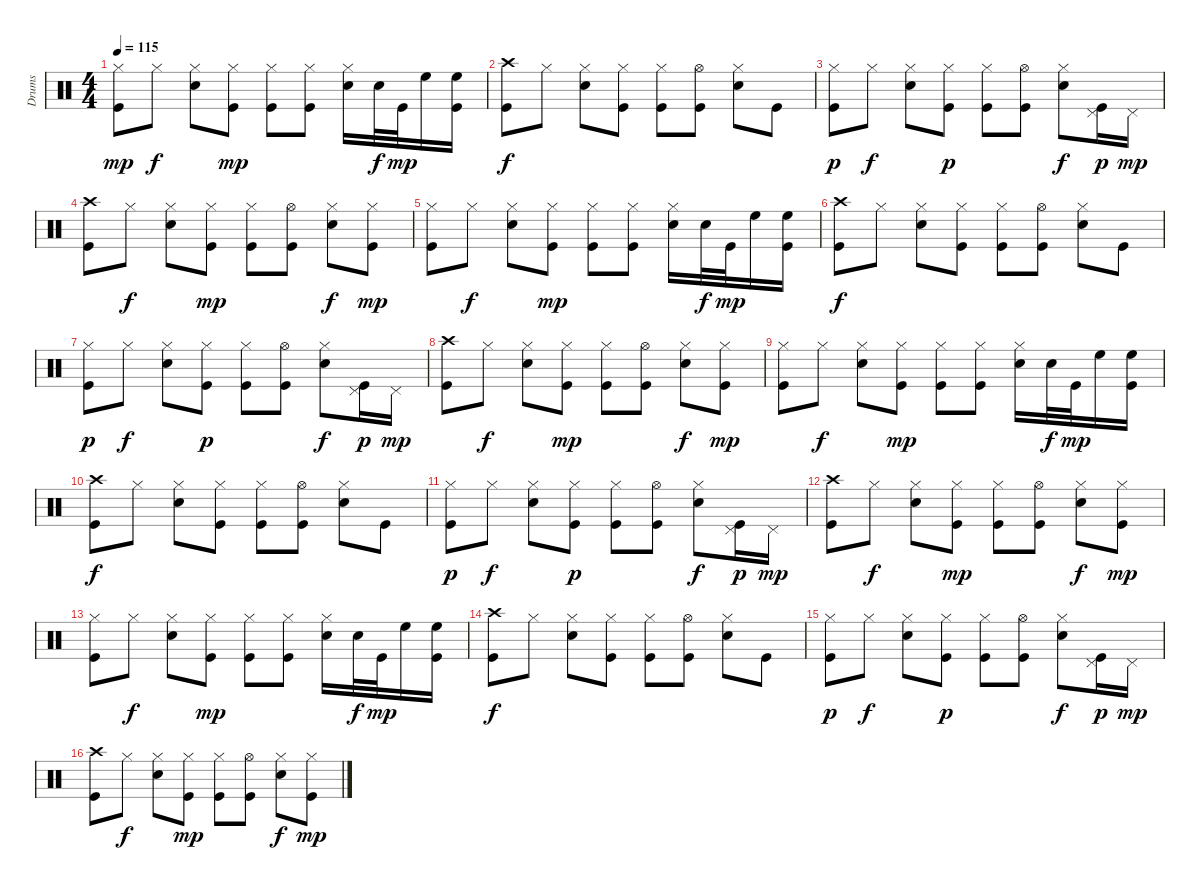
\track ("Drums" "Drums") {instrument percussion}
\staff {score}
\articulation defaults
\ts (4 4)
\tempo 115
\clef neutral
\ks c
("Hi-Hat (closed)" "Kick (hit)").8{dy mp} "Hi-Hat (closed)".8{dy f} ("Hi-Hat (closed)" "Snare (hit) 2").8 ("Hi-Hat (closed)" "Kick (hit)").8{dy mp} ("Hi-Hat (closed)" "Kick (hit)").8 ("Hi-Hat (closed)" "Kick (hit)").8 ("Hi-Hat (closed)" "Snare (hit) 2").16 "Snare (hit) 2".32{dy f} "Kick (hit)".32{dy mp} "High Floor Tom (hit)".16 ("High Floor Tom (hit)" "Kick (hit)").16 |
("Crash high (hit)" "Kick (hit)").8{dy f} "Hi-Hat (closed)".8 ("Hi-Hat (closed)" "Snare (hit) 2").8 ("Hi-Hat (closed)" "Kick (hit)").8 ("Hi-Hat (closed)" "Kick (hit)").8 ("Hi-Hat (open)" "Kick (hit)").8 ("Hi-Hat (closed)" "Snare (hit) 2").8 "Kick (hit)".8 |
("Hi-Hat (closed)" "Kick (hit)").8{dy p} "Hi-Hat (closed)".8{dy f} ("Hi-Hat (closed)" "Snare (hit) 2").8 ("Hi-Hat (closed)" "Kick (hit)").8{dy p} ("Hi-Hat (closed)" "Kick (hit)").8 ("Hi-Hat (open)" "Kick (hit)").8 ("Hi-Hat (closed)" "Snare (hit) 2").8{dy f} ("Pedal Hi-Hat (hit)" "Kick (hit)").16{dy p} "Pedal Hi-Hat (hit)".16{dy mp} |
("Crash high (hit)" "Kick (hit)").8 "Hi-Hat (closed)".8{dy f} ("Hi-Hat (closed)" "Snare (hit) 2").8 ("Hi-Hat (closed)" "Kick (hit)").8{dy mp} ("Hi-Hat (closed)" "Kick (hit)").8 ("Hi-Hat (open)" "Kick (hit)").8 ("Hi-Hat (closed)" "Snare (hit) 2").8{dy f} ("Hi-Hat (closed)" "Kick (hit)").8{dy mp} |
("Hi-Hat (closed)" "Kick (hit)").8 "Hi-Hat (closed)".8{dy f} ("Hi-Hat (closed)" "Snare (hit) 2").8 ("Hi-Hat (closed)" "Kick (hit)").8{dy mp} ("Hi-Hat (closed)" "Kick (hit)").8 ("Hi-Hat (closed)" "Kick (hit)").8 ("Hi-Hat (closed)" "Snare (hit) 2").16 "Snare (hit) 2".32{dy f} "Kick (hit)".32{dy mp} "High Floor Tom (hit)".16 ("High Floor Tom (hit)" "Kick (hit)").16 |
("Crash high (hit)" "Kick (hit)").8{dy f} "Hi-Hat (closed)".8 ("Hi-Hat (closed)" "Snare (hit) 2").8 ("Hi-Hat (closed)" "Kick (hit)").8 ("Hi-Hat (closed)" "Kick (hit)").8 ("Hi-Hat (open)" "Kick (hit)").8 ("Hi-Hat (closed)" "Snare (hit) 2").8 "Kick (hit)".8 |
("Hi-Hat (closed)" "Kick (hit)").8{dy p} "Hi-Hat (closed)".8{dy f} ("Hi-Hat (closed)" "Snare (hit) 2").8 ("Hi-Hat (closed)" "Kick (hit)").8{dy p} ("Hi-Hat (closed)" "Kick (hit)").8 ("Hi-Hat (open)" "Kick (hit)").8 ("Hi-Hat (closed)" "Snare (hit) 2").8{dy f} ("Pedal Hi-Hat (hit)" "Kick (hit)").16{dy p} "Pedal Hi-Hat (hit)".16{dy mp} |
("Crash high (hit)" "Kick (hit)").8 "Hi-Hat (closed)".8{dy f} ("Hi-Hat (closed)" "Snare (hit) 2").8 ("Hi-Hat (closed)" "Kick (hit)").8{dy mp} ("Hi-Hat (closed)" "Kick (hit)").8 ("Hi-Hat (open)" "Kick (hit)").8 ("Hi-Hat (closed)" "Snare (hit) 2").8{dy f} ("Hi-Hat (closed)" "Kick (hit)").8{dy mp} |
("Hi-Hat (closed)" "Kick (hit)").8 "Hi-Hat (closed)".8{dy f} ("Hi-Hat (closed)" "Snare (hit) 2").8 ("Hi-Hat (closed)" "Kick (hit)").8{dy mp} ("Hi-Hat (closed)" "Kick (hit)").8 ("Hi-Hat (closed)" "Kick (hit)").8 ("Hi-Hat (closed)" "Snare (hit) 2").16 "Snare (hit) 2".32{dy f} "Kick (hit)".32{dy mp} "High Floor Tom (hit)".16 ("High Floor Tom (hit)" "Kick (hit)").16 |
("Crash high (hit)" "Kick (hit)").8{dy f} "Hi-Hat (closed)".8 ("Hi-Hat (closed)" "Snare (hit) 2").8 ("Hi-Hat (closed)" "Kick (hit)").8 ("Hi-Hat (closed)" "Kick (hit)").8 ("Hi-Hat (open)" "Kick (hit)").8 ("Hi-Hat (closed)" "Snare (hit) 2").8 "Kick (hit)".8 |
("Hi-Hat (closed)" "Kick (hit)").8{dy p} "Hi-Hat (closed)".8{dy f} ("Hi-Hat (closed)" "Snare (hit) 2").8 ("Hi-Hat (closed)" "Kick (hit)").8{dy p} ("Hi-Hat (closed)" "Kick (hit)").8 ("Hi-Hat (open)" "Kick (hit)").8 ("Hi-Hat (closed)" "Snare (hit) 2").8{dy f} ("Pedal Hi-Hat (hit)" "Kick (hit)").16{dy p} "Pedal Hi-Hat (hit)".16{dy mp} |
("Crash high (hit)" "Kick (hit)").8 "Hi-Hat (closed)".8{dy f} ("Hi-Hat (closed)" "Snare (hit) 2").8 ("Hi-Hat (closed)" "Kick (hit)").8{dy mp} ("Hi-Hat (closed)" "Kick (hit)").8 ("Hi-Hat (open)" "Kick (hit)").8 ("Hi-Hat (closed)" "Snare (hit) 2").8{dy f} ("Hi-Hat (closed)" "Kick (hit)").8{dy mp} |
("Hi-Hat (closed)" "Kick (hit)").8 "Hi-Hat (closed)".8{dy f} ("Hi-Hat (closed)" "Snare (hit) 2").8 ("Hi-Hat (closed)" "Kick (hit)").8{dy mp} ("Hi-Hat (closed)" "Kick (hit)").8 ("Hi-Hat (closed)" "Kick (hit)").8 ("Hi-Hat (closed)" "Snare (hit) 2").16 "Snare (hit) 2".32{dy f} "Kick (hit)".32{dy mp} "High Floor Tom (hit)".16 ("High Floor Tom (hit)" "Kick (hit)").16 |
("Crash high (hit)" "Kick (hit)").8{dy f} "Hi-Hat (closed)".8 ("Hi-Hat (closed)" "Snare (hit) 2").8 ("Hi-Hat (closed)" "Kick (hit)").8 ("Hi-Hat (closed)" "Kick (hit)").8 ("Hi-Hat (open)" "Kick (hit)").8 ("Hi-Hat (closed)" "Snare (hit) 2").8 "Kick (hit)".8 |
("Hi-Hat (closed)" "Kick (hit)").8{dy p} "Hi-Hat (closed)".8{dy f} ("Hi-Hat (closed)" "Snare (hit) 2").8 ("Hi-Hat (closed)" "Kick (hit)").8{dy p} ("Hi-Hat (closed)" "Kick (hit)").8 ("Hi-Hat (open)" "Kick (hit)").8 ("Hi-Hat (closed)" "Snare (hit) 2").8{dy f} ("Pedal Hi-Hat (hit)" "Kick (hit)").16{dy p} "Pedal Hi-Hat (hit)".16{dy mp} |
("Crash high (hit)" "Kick (hit)").8 "Hi-Hat (closed)".8{dy f} ("Hi-Hat (closed)" "Snare (hit) 2").8 ("Hi-Hat (closed)" "Kick (hit)").8{dy mp} ("Hi-Hat (closed)" "Kick (hit)").8 ("Hi-Hat (open)" "Kick (hit)").8 ("Hi-Hat (closed)" "Snare (hit) 2").8{dy f} ("Hi-Hat (closed)" "Kick (hit)").8{dy mp}
